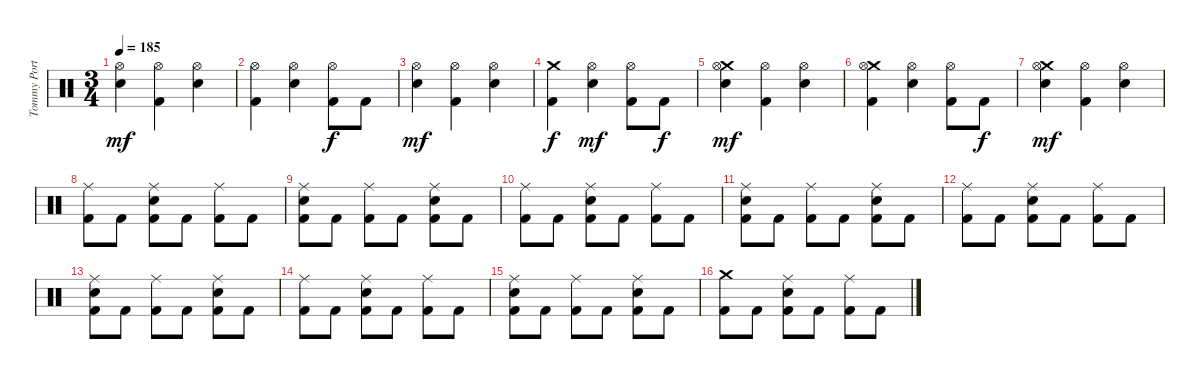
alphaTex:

\track ("Tommy Portino" "Tommy Port") {instrument percussion}
\staff {score}
\articulation defaults
\ts (3 4)
\tempo 185
\clef neutral
\ks c
("Hi-Hat (open)" "Snare (hit) 2").4{dy mf} ("Hi-Hat (open)" "Kick (hit) 2").4 ("Hi-Hat (open)" "Snare (hit) 2").4 |
("Hi-Hat (open)" "Kick (hit) 2").4 ("Hi-Hat (open)" "Snare (hit) 2").4 ("Hi-Hat (open)" "Kick (hit) 2").8{dy f} "Kick (hit) 2".8 |
("Hi-Hat (open)" "Snare (hit) 2").4{dy mf} ("Hi-Hat (open)" "Kick (hit) 2").4 ("Hi-Hat (open)" "Snare (hit) 2").4 |
("Crash medium (hit)" "Kick (hit) 2").4{dy f} ("Snare (hit) 2" "Hi-Hat (open)").4{dy mf} ("Hi-Hat (open)" "Kick (hit) 2").8 "Kick (hit) 2".8{dy f} |
("Crash medium (hit)" "Snare (hit) 2" "Hi-Hat (open)").4{dy mf} ("Hi-Hat (open)" "Kick (hit) 2").4 ("Snare (hit) 2" "Hi-Hat (open)").4 |
("Crash medium (hit)" "Hi-Hat (open)" "Kick (hit) 2").4 ("Snare (hit) 2" "Hi-Hat (open)").4 ("Hi-Hat (open)" "Kick (hit) 2").8 "Kick (hit) 2".8{dy f} |
("Crash medium (hit)" "Snare (hit) 2" "Hi-Hat (open)").4{dy mf} ("Hi-Hat (open)" "Kick (hit) 2").4 ("Snare (hit) 2" "Hi-Hat (open)").4 |
("Ride (middle)" "Kick (hit) 2").8 "Kick (hit) 2".8 ("Ride (middle)" "Snare (hit) 2" "Kick (hit) 2").8 "Kick (hit) 2".8 ("Ride (middle)" "Kick (hit) 2").8 "Kick (hit) 2".8 |
("Ride (middle)" "Snare (hit) 2" "Kick (hit) 2").8 "Kick (hit) 2".8 ("Ride (middle)" "Kick (hit) 2").8 "Kick (hit) 2".8 ("Ride (middle)" "Snare (hit) 2" "Kick (hit) 2").8 "Kick (hit) 2".8 |
("Ride (middle)" "Kick (hit) 2").8 "Kick (hit) 2".8 ("Ride (middle)" "Snare (hit) 2" "Kick (hit) 2").8 "Kick (hit) 2".8 ("Ride (middle)" "Kick (hit) 2").8 "Kick (hit) 2".8 |
("Ride (middle)" "Snare (hit) 2" "Kick (hit) 2").8 "Kick (hit) 2".8 ("Ride (middle)" "Kick (hit) 2").8 "Kick (hit) 2".8 ("Ride (middle)" "Snare (hit) 2" "Kick (hit) 2").8 "Kick (hit) 2".8 |
("Ride (middle)" "Kick (hit) 2").8 "Kick (hit) 2".8 ("Ride (middle)" "Snare (hit) 2" "Kick (hit) 2").8 "Kick (hit) 2".8 ("Ride (middle)" "Kick (hit) 2").8 "Kick (hit) 2".8 |
("Ride (middle)" "Snare (hit) 2" "Kick (hit) 2").8 "Kick (hit) 2".8 ("Ride (middle)" "Kick (hit) 2").8 "Kick (hit) 2".8 ("Ride (middle)" "Snare (hit) 2" "Kick (hit) 2").8 "Kick (hit) 2".8 |
("Ride (middle)" "Kick (hit) 2").8 "Kick (hit) 2".8 ("Ride (middle)" "Snare (hit) 2" "Kick (hit) 2").8 "Kick (hit) 2".8 ("Ride (middle)" "Kick (hit) 2").8 "Kick (hit) 2".8 |
("Ride (middle)" "Snare (hit) 2" "Kick (hit) 2").8 "Kick (hit) 2".8 ("Ride (middle)" "Kick (hit) 2").8 "Kick (hit) 2".8 ("Ride (middle)" "Snare (hit) 2" "Kick (hit) 2").8 "Kick (hit) 2".8 |
("Crash medium (hit)" "Kick (hit) 2").8 "Kick (hit) 2".8 ("Ride (middle)" "Snare (hit) 2" "Kick (hit) 2").8 "Kick (hit) 2".8 ("Ride (middle)" "Kick (hit) 2").8 "Kick (hit) 2".8
